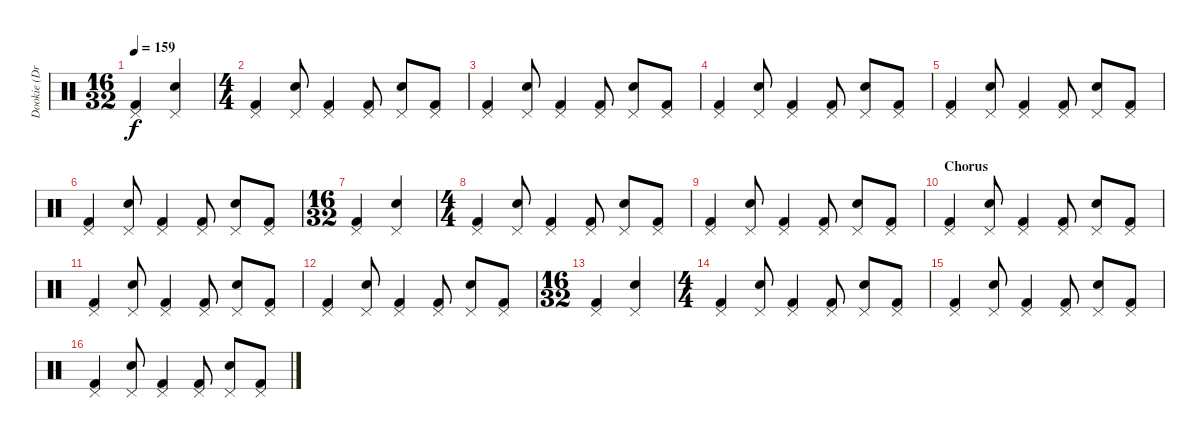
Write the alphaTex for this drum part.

\track ("Dookie (Drums)" "Dookie (Dr") {instrument percussion}
\staff {score}
\articulation defaults
\ts (16 32)
\tempo 159
\clef neutral
\ks c
("Kick (hit) 2" "Pedal Hi-Hat (hit)").4{dy f} ("Electric Snare (hit)" "Pedal Hi-Hat (hit)").4 |
\ts (4 4)
("Kick (hit) 2" "Pedal Hi-Hat (hit)").4 ("Electric Snare (hit)" "Pedal Hi-Hat (hit)").8 ("Kick (hit) 2" "Pedal Hi-Hat (hit)").4 ("Kick (hit) 2" "Pedal Hi-Hat (hit)").8 ("Electric Snare (hit)" "Pedal Hi-Hat (hit)").8 ("Kick (hit) 2" "Pedal Hi-Hat (hit)").8 |
("Kick (hit) 2" "Pedal Hi-Hat (hit)").4 ("Electric Snare (hit)" "Pedal Hi-Hat (hit)").8 ("Kick (hit) 2" "Pedal Hi-Hat (hit)").4 ("Kick (hit) 2" "Pedal Hi-Hat (hit)").8 ("Electric Snare (hit)" "Pedal Hi-Hat (hit)").8 ("Kick (hit) 2" "Pedal Hi-Hat (hit)").8 |
("Kick (hit) 2" "Pedal Hi-Hat (hit)").4 ("Electric Snare (hit)" "Pedal Hi-Hat (hit)").8 ("Kick (hit) 2" "Pedal Hi-Hat (hit)").4 ("Kick (hit) 2" "Pedal Hi-Hat (hit)").8 ("Electric Snare (hit)" "Pedal Hi-Hat (hit)").8 ("Kick (hit) 2" "Pedal Hi-Hat (hit)").8 |
("Kick (hit) 2" "Pedal Hi-Hat (hit)").4 ("Electric Snare (hit)" "Pedal Hi-Hat (hit)").8 ("Kick (hit) 2" "Pedal Hi-Hat (hit)").4 ("Kick (hit) 2" "Pedal Hi-Hat (hit)").8 ("Electric Snare (hit)" "Pedal Hi-Hat (hit)").8 ("Kick (hit) 2" "Pedal Hi-Hat (hit)").8 |
("Kick (hit) 2" "Pedal Hi-Hat (hit)").4 ("Electric Snare (hit)" "Pedal Hi-Hat (hit)").8 ("Kick (hit) 2" "Pedal Hi-Hat (hit)").4 ("Kick (hit) 2" "Pedal Hi-Hat (hit)").8 ("Electric Snare (hit)" "Pedal Hi-Hat (hit)").8 ("Kick (hit) 2" "Pedal Hi-Hat (hit)").8 |
\ts (16 32)
("Kick (hit) 2" "Pedal Hi-Hat (hit)").4 ("Electric Snare (hit)" "Pedal Hi-Hat (hit)").4 |
\ts (4 4)
("Kick (hit) 2" "Pedal Hi-Hat (hit)").4 ("Electric Snare (hit)" "Pedal Hi-Hat (hit)").8 ("Kick (hit) 2" "Pedal Hi-Hat (hit)").4 ("Kick (hit) 2" "Pedal Hi-Hat (hit)").8 ("Electric Snare (hit)" "Pedal Hi-Hat (hit)").8 ("Kick (hit) 2" "Pedal Hi-Hat (hit)").8 |
("Kick (hit) 2" "Pedal Hi-Hat (hit)").4 ("Electric Snare (hit)" "Pedal Hi-Hat (hit)").8 ("Kick (hit) 2" "Pedal Hi-Hat (hit)").4 ("Kick (hit) 2" "Pedal Hi-Hat (hit)").8 ("Electric Snare (hit)" "Pedal Hi-Hat (hit)").8 ("Kick (hit) 2" "Pedal Hi-Hat (hit)").8 |
\section ("" "Chorus")
("Kick (hit) 2" "Pedal Hi-Hat (hit)").4 ("Electric Snare (hit)" "Pedal Hi-Hat (hit)").8 ("Kick (hit) 2" "Pedal Hi-Hat (hit)").4 ("Kick (hit) 2" "Pedal Hi-Hat (hit)").8 ("Electric Snare (hit)" "Pedal Hi-Hat (hit)").8 ("Kick (hit) 2" "Pedal Hi-Hat (hit)").8 |
("Kick (hit) 2" "Pedal Hi-Hat (hit)").4 ("Electric Snare (hit)" "Pedal Hi-Hat (hit)").8 ("Kick (hit) 2" "Pedal Hi-Hat (hit)").4 ("Kick (hit) 2" "Pedal Hi-Hat (hit)").8 ("Electric Snare (hit)" "Pedal Hi-Hat (hit)").8 ("Kick (hit) 2" "Pedal Hi-Hat (hit)").8 |
("Kick (hit) 2" "Pedal Hi-Hat (hit)").4 ("Electric Snare (hit)" "Pedal Hi-Hat (hit)").8 ("Kick (hit) 2" "Pedal Hi-Hat (hit)").4 ("Kick (hit) 2" "Pedal Hi-Hat (hit)").8 ("Electric Snare (hit)" "Pedal Hi-Hat (hit)").8 ("Kick (hit) 2" "Pedal Hi-Hat (hit)").8 |
\ts (16 32)
("Kick (hit) 2" "Pedal Hi-Hat (hit)").4 ("Electric Snare (hit)" "Pedal Hi-Hat (hit)").4 |
\ts (4 4)
("Kick (hit) 2" "Pedal Hi-Hat (hit)").4 ("Electric Snare (hit)" "Pedal Hi-Hat (hit)").8 ("Kick (hit) 2" "Pedal Hi-Hat (hit)").4 ("Kick (hit) 2" "Pedal Hi-Hat (hit)").8 ("Electric Snare (hit)" "Pedal Hi-Hat (hit)").8 ("Kick (hit) 2" "Pedal Hi-Hat (hit)").8 |
("Kick (hit) 2" "Pedal Hi-Hat (hit)").4 ("Electric Snare (hit)" "Pedal Hi-Hat (hit)").8 ("Kick (hit) 2" "Pedal Hi-Hat (hit)").4 ("Kick (hit) 2" "Pedal Hi-Hat (hit)").8 ("Electric Snare (hit)" "Pedal Hi-Hat (hit)").8 ("Kick (hit) 2" "Pedal Hi-Hat (hit)").8 |
("Kick (hit) 2" "Pedal Hi-Hat (hit)").4 ("Electric Snare (hit)" "Pedal Hi-Hat (hit)").8 ("Kick (hit) 2" "Pedal Hi-Hat (hit)").4 ("Kick (hit) 2" "Pedal Hi-Hat (hit)").8 ("Electric Snare (hit)" "Pedal Hi-Hat (hit)").8 ("Kick (hit) 2" "Pedal Hi-Hat (hit)").8
